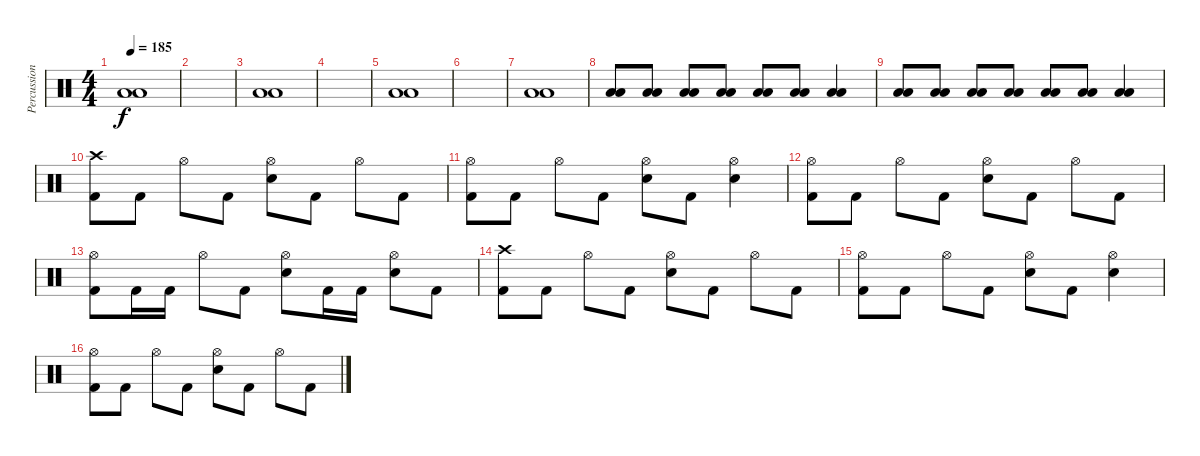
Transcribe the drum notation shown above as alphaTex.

\track ("Percussion" "Percussion") {instrument percussion}
\staff {score}
\articulation defaults
\ts (4 4)
\tempo 185
\clef neutral
\ks c
("Low Floor Tom (hit)" "Low Floor Tom (hit)").1{bd 120 dy f} |
|
("Low Floor Tom (hit)" "Low Floor Tom (hit)").1{bd 120} |
|
("Low Floor Tom (hit)" "Low Floor Tom (hit)").1{bd 120} |
|
("Low Floor Tom (hit)" "Low Floor Tom (hit)").1{bd 120} |
("Low Floor Tom (hit)" "Low Floor Tom (hit)").8{bd 120} ("Low Floor Tom (hit)" "Low Floor Tom (hit)").8{bd 120} ("Low Floor Tom (hit)" "Low Floor Tom (hit)").8{bd 120} ("Low Floor Tom (hit)" "Low Floor Tom (hit)").8{bd 120} ("Low Floor Tom (hit)" "Low Floor Tom (hit)").8{bd 120} ("Low Floor Tom (hit)" "Low Floor Tom (hit)").8{bd 120} ("Low Floor Tom (hit)" "Low Floor Tom (hit)").4{bd 120} |
("Low Floor Tom (hit)" "Low Floor Tom (hit)").8{bd 120} ("Low Floor Tom (hit)" "Low Floor Tom (hit)").8{bd 120} ("Low Floor Tom (hit)" "Low Floor Tom (hit)").8{bd 120} ("Low Floor Tom (hit)" "Low Floor Tom (hit)").8{bd 120} ("Low Floor Tom (hit)" "Low Floor Tom (hit)").8{bd 120} ("Low Floor Tom (hit)" "Low Floor Tom (hit)").8{bd 120} ("Low Floor Tom (hit)" "Low Floor Tom (hit)").4{bd 120} |
("Crash high (hit)" "Kick (hit) 2").8 "Kick (hit) 2".8 "Hi-Hat (open)".8 "Kick (hit) 2".8 ("Hi-Hat (open)" "Electric Snare (hit)").8 "Kick (hit) 2".8 "Hi-Hat (open)".8 "Kick (hit) 2".8 |
("Hi-Hat (open)" "Kick (hit) 2").8 "Kick (hit) 2".8 "Hi-Hat (open)".8 "Kick (hit) 2".8 ("Hi-Hat (open)" "Electric Snare (hit)").8 "Kick (hit) 2".8 ("Hi-Hat (open)" "Electric Snare (hit)").4 |
("Hi-Hat (open)" "Kick (hit) 2").8 "Kick (hit) 2".8 "Hi-Hat (open)".8 "Kick (hit) 2".8 ("Hi-Hat (open)" "Electric Snare (hit)").8 "Kick (hit) 2".8 "Hi-Hat (open)".8 "Kick (hit) 2".8 |
("Hi-Hat (open)" "Kick (hit) 2").8 "Kick (hit) 2".16 "Kick (hit) 2".16 "Hi-Hat (open)".8 "Kick (hit) 2".8 ("Hi-Hat (open)" "Electric Snare (hit)").8 "Kick (hit) 2".16 "Kick (hit) 2".16 ("Hi-Hat (open)" "Electric Snare (hit)").8 "Kick (hit) 2".8 |
("Crash high (hit)" "Kick (hit) 2").8 "Kick (hit) 2".8 "Hi-Hat (open)".8 "Kick (hit) 2".8 ("Hi-Hat (open)" "Electric Snare (hit)").8 "Kick (hit) 2".8 "Hi-Hat (open)".8 "Kick (hit) 2".8 |
("Hi-Hat (open)" "Kick (hit) 2").8 "Kick (hit) 2".8 "Hi-Hat (open)".8 "Kick (hit) 2".8 ("Hi-Hat (open)" "Electric Snare (hit)").8 "Kick (hit) 2".8 ("Hi-Hat (open)" "Electric Snare (hit)").4 |
("Hi-Hat (open)" "Kick (hit) 2").8 "Kick (hit) 2".8 "Hi-Hat (open)".8 "Kick (hit) 2".8 ("Hi-Hat (open)" "Electric Snare (hit)").8 "Kick (hit) 2".8 "Hi-Hat (open)".8 "Kick (hit) 2".8
